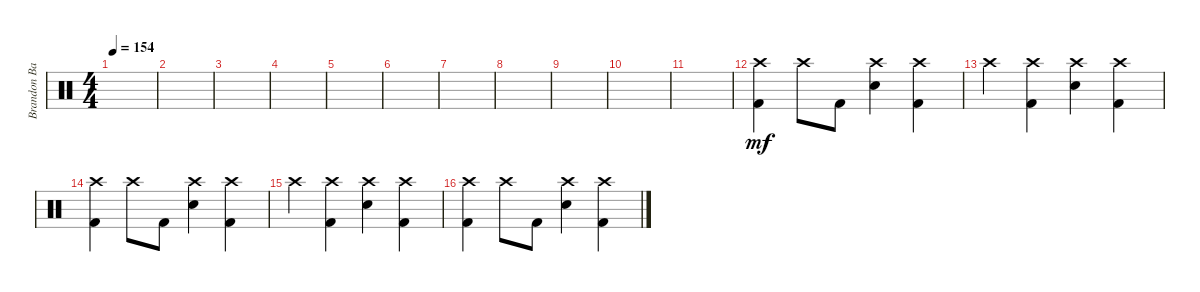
\track ("Brandon Barnes - Drums" "Brandon Ba") {instrument percussion}
\staff {score}
\articulation defaults
\ts (4 4)
\tempo 154
\clef neutral
\ks c
|
|
|
|
|
|
|
|
|
|
|
("Crash high (hit)" "Kick (hit) 2").4{dy mf} "Crash high (hit)".8 "Kick (hit) 2".8 ("Crash high (hit)" "Snare (hit) 2").4 ("Kick (hit) 2" "Crash high (hit)").4 |
"Crash high (hit)".4 ("Kick (hit) 2" "Crash high (hit)").4 ("Snare (hit) 2" "Crash high (hit)").4 ("Kick (hit) 2" "Crash high (hit)").4 |
("Crash high (hit)" "Kick (hit) 2").4 "Crash high (hit)".8 "Kick (hit) 2".8 ("Crash high (hit)" "Snare (hit) 2").4 ("Kick (hit) 2" "Crash high (hit)").4 |
"Crash high (hit)".4 ("Kick (hit) 2" "Crash high (hit)").4 ("Snare (hit) 2" "Crash high (hit)").4 ("Kick (hit) 2" "Crash high (hit)").4 |
("Crash high (hit)" "Kick (hit) 2").4 "Crash high (hit)".8 "Kick (hit) 2".8 ("Crash high (hit)" "Snare (hit) 2").4 ("Kick (hit) 2" "Crash high (hit)").4
